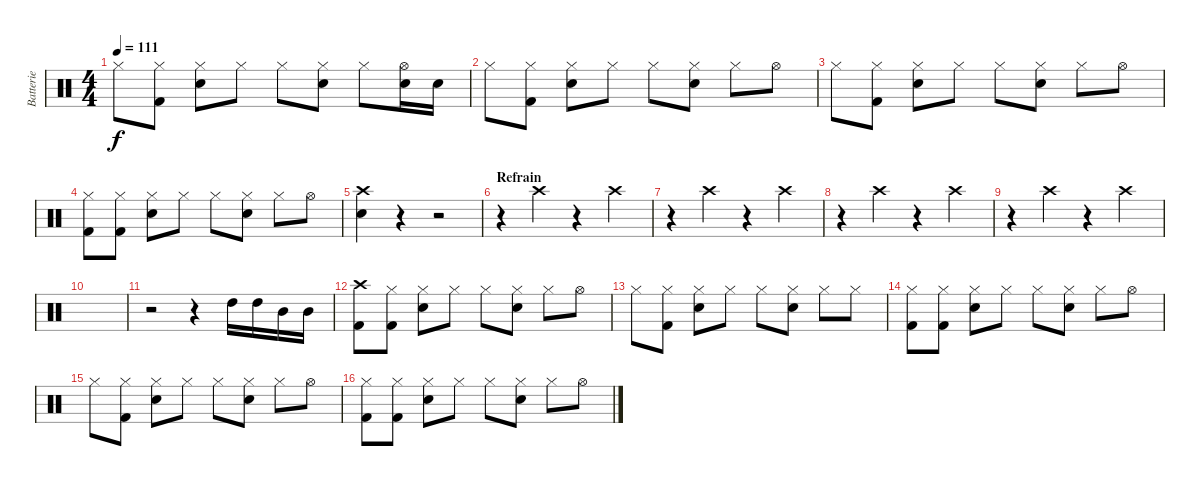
\track ("Batterie" "Batterie") {instrument percussion}
\staff {score}
\articulation defaults
\ts (4 4)
\tempo 111
\clef neutral
\ks c "Hi-Hat (closed)".8{dy f}
("Hi-Hat (closed)" "Kick (hit) 2").8 ("Hi-Hat (closed)" "Snare (hit) 2").8 "Hi-Hat (closed)".8 "Hi-Hat (closed)".8 ("Hi-Hat (closed)" "Snare (hit) 2").8 "Hi-Hat (closed)".8 ("Hi-Hat (open)" "Snare (hit) 2").16 "Snare (hit) 2".16 |
"Hi-Hat (closed)".8 ("Hi-Hat (closed)" "Kick (hit) 2").8 ("Hi-Hat (closed)" "Snare (hit) 2").8 "Hi-Hat (closed)".8 "Hi-Hat (closed)".8 ("Hi-Hat (closed)" "Snare (hit) 2").8 "Hi-Hat (closed)".8 "Hi-Hat (open)".8 |
"Hi-Hat (closed)".8 ("Hi-Hat (closed)" "Kick (hit) 2").8 ("Hi-Hat (closed)" "Snare (hit) 2").8 "Hi-Hat (closed)".8 "Hi-Hat (closed)".8 ("Hi-Hat (closed)" "Snare (hit) 2").8 "Hi-Hat (closed)".8 "Hi-Hat (open)".8 |
("Hi-Hat (closed)" "Kick (hit) 2").8 ("Hi-Hat (closed)" "Kick (hit) 2").8 ("Hi-Hat (closed)" "Snare (hit) 2").8 "Hi-Hat (closed)".8 "Hi-Hat (closed)".8 ("Hi-Hat (closed)" "Snare (hit) 2").8 "Hi-Hat (closed)".8 "Hi-Hat (open)".8 |
("Crash high (hit)" "Snare (hit) 2").4{volume 9} r.4 r.2 |
\section ("" "Refrain")
r.4 "Crash high (hit)".4 r.4 "Crash high (hit)".4 |
r.4 "Crash high (hit)".4 r.4 "Crash high (hit)".4 |
r.4 "Crash high (hit)".4 r.4 "Crash high (hit)".4 |
r.4 "Crash high (hit)".4 r.4 "Crash high (hit)".4 |
|
r.2{volume 14} r.4 "High Tom (hit)".16 "High Tom (hit)".16 "Mid Tom (hit)".16 "Mid Tom (hit)".16 |
("Crash high (hit)" "Kick (hit) 2").8 ("Hi-Hat (closed)" "Kick (hit) 2").8 ("Hi-Hat (closed)" "Snare (hit) 2").8 "Hi-Hat (closed)".8 "Hi-Hat (closed)".8 ("Hi-Hat (closed)" "Snare (hit) 2").8 "Hi-Hat (closed)".8 "Hi-Hat (open)".8 |
"Hi-Hat (closed)".8 ("Hi-Hat (closed)" "Kick (hit) 2").8 ("Hi-Hat (closed)" "Snare (hit) 2").8 "Hi-Hat (closed)".8 "Hi-Hat (closed)".8 ("Hi-Hat (closed)" "Snare (hit) 2").8 "Hi-Hat (closed)".8 "Hi-Hat (closed)".8 |
("Hi-Hat (closed)" "Kick (hit) 2").8 ("Hi-Hat (closed)" "Kick (hit) 2").8 ("Hi-Hat (closed)" "Snare (hit) 2").8 "Hi-Hat (closed)".8 "Hi-Hat (closed)".8 ("Hi-Hat (closed)" "Snare (hit) 2").8 "Hi-Hat (closed)".8 "Hi-Hat (open)".8 |
"Hi-Hat (closed)".8 ("Hi-Hat (closed)" "Kick (hit) 2").8 ("Hi-Hat (closed)" "Snare (hit) 2").8 "Hi-Hat (closed)".8 "Hi-Hat (closed)".8 ("Hi-Hat (closed)" "Snare (hit) 2").8 "Hi-Hat (closed)".8 "Hi-Hat (open)".8 |
("Hi-Hat (closed)" "Kick (hit) 2").8 ("Hi-Hat (closed)" "Kick (hit) 2").8 ("Hi-Hat (closed)" "Snare (hit) 2").8 "Hi-Hat (closed)".8 "Hi-Hat (closed)".8 ("Hi-Hat (closed)" "Snare (hit) 2").8 "Hi-Hat (closed)".8 "Hi-Hat (open)".8
